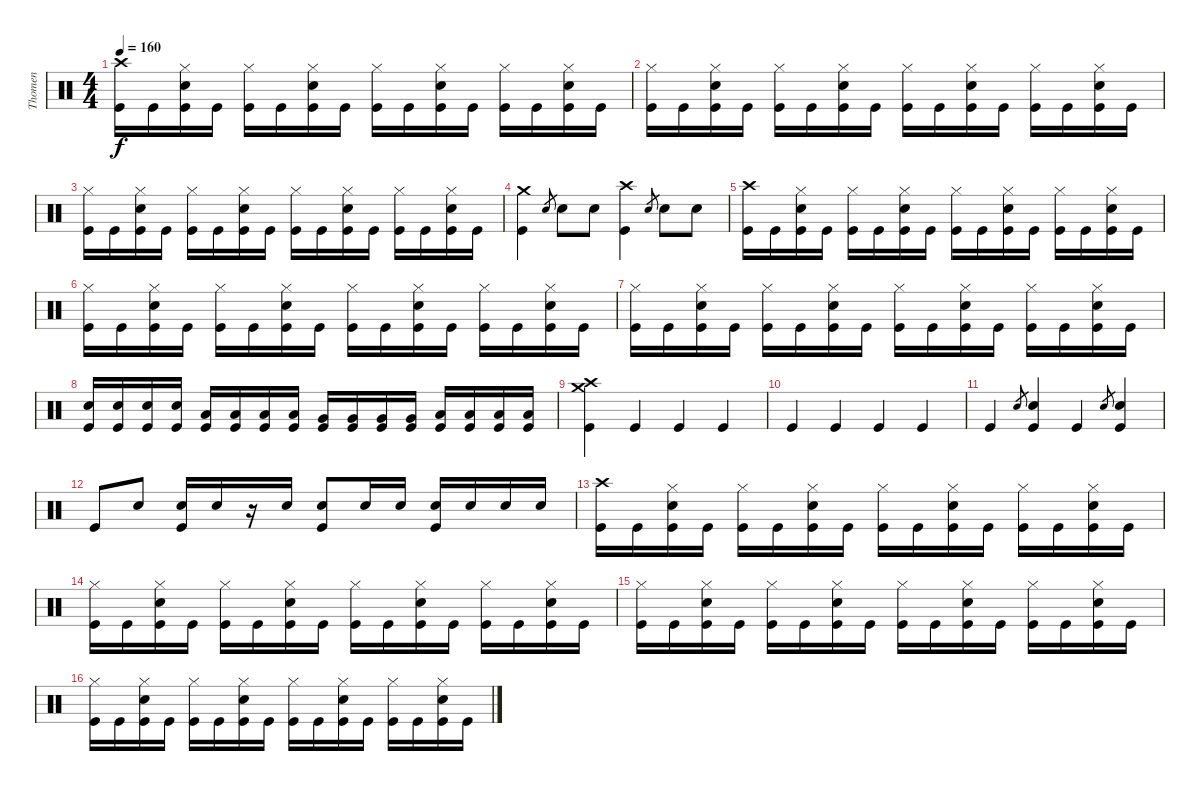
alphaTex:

\track ("Thomen" "Thomen") {instrument percussion}
\staff {score}
\articulation defaults
\ts (4 4)
\tempo 160
\clef neutral
\ks c
("Crash high (hit)" "Kick (hit)").16{dy f} "Kick (hit)".16 ("Hi-Hat (closed)" "Snare (hit) 2" "Kick (hit)").16 "Kick (hit)".16 ("Hi-Hat (closed)" "Kick (hit)").16 "Kick (hit)".16 ("Hi-Hat (closed)" "Snare (hit) 2" "Kick (hit)").16 "Kick (hit)".16 ("Hi-Hat (closed)" "Kick (hit)").16 "Kick (hit)".16 ("Hi-Hat (closed)" "Snare (hit) 2" "Kick (hit)").16 "Kick (hit)".16 ("Hi-Hat (closed)" "Kick (hit)").16 "Kick (hit)".16 ("Hi-Hat (closed)" "Snare (hit) 2" "Kick (hit)").16 "Kick (hit)".16 |
("Hi-Hat (closed)" "Kick (hit)").16 "Kick (hit)".16 ("Hi-Hat (closed)" "Snare (hit) 2" "Kick (hit)").16 "Kick (hit)".16 ("Hi-Hat (closed)" "Kick (hit)").16 "Kick (hit)".16 ("Hi-Hat (closed)" "Snare (hit) 2" "Kick (hit)").16 "Kick (hit)".16 ("Hi-Hat (closed)" "Kick (hit)").16 "Kick (hit)".16 ("Hi-Hat (closed)" "Snare (hit) 2" "Kick (hit)").16 "Kick (hit)".16 ("Hi-Hat (closed)" "Kick (hit)").16 "Kick (hit)".16 ("Hi-Hat (closed)" "Snare (hit) 2" "Kick (hit)").16 "Kick (hit)".16 |
("Hi-Hat (closed)" "Kick (hit)").16 "Kick (hit)".16 ("Hi-Hat (closed)" "Snare (hit) 2" "Kick (hit)").16 "Kick (hit)".16 ("Hi-Hat (closed)" "Kick (hit)").16 "Kick (hit)".16 ("Hi-Hat (closed)" "Snare (hit) 2" "Kick (hit)").16 "Kick (hit)".16 ("Hi-Hat (closed)" "Kick (hit)").16 "Kick (hit)".16 ("Hi-Hat (closed)" "Snare (hit) 2" "Kick (hit)").16 "Kick (hit)".16 ("Hi-Hat (closed)" "Kick (hit)").16 "Kick (hit)".16 ("Hi-Hat (closed)" "Snare (hit) 2" "Kick (hit)").16 "Kick (hit)".16 |
("Crash medium (hit)" "Kick (hit)").4 "Snare (hit) 2".8{gr} "Snare (hit) 2".8 "Snare (hit) 2".8 ("Crash high (hit)" "Kick (hit)").4 "Snare (hit) 2".8{gr} "Snare (hit) 2".8 "Snare (hit) 2".8 |
("Crash high (hit)" "Kick (hit)").16 "Kick (hit)".16 ("Hi-Hat (closed)" "Snare (hit) 2" "Kick (hit)").16 "Kick (hit)".16 ("Hi-Hat (closed)" "Kick (hit)").16 "Kick (hit)".16 ("Hi-Hat (closed)" "Snare (hit) 2" "Kick (hit)").16 "Kick (hit)".16 ("Hi-Hat (closed)" "Kick (hit)").16 "Kick (hit)".16 ("Hi-Hat (closed)" "Snare (hit) 2" "Kick (hit)").16 "Kick (hit)".16 ("Hi-Hat (closed)" "Kick (hit)").16 "Kick (hit)".16 ("Hi-Hat (closed)" "Snare (hit) 2" "Kick (hit)").16 "Kick (hit)".16 |
("Hi-Hat (closed)" "Kick (hit)").16 "Kick (hit)".16 ("Hi-Hat (closed)" "Snare (hit) 2" "Kick (hit)").16 "Kick (hit)".16 ("Hi-Hat (closed)" "Kick (hit)").16 "Kick (hit)".16 ("Hi-Hat (closed)" "Snare (hit) 2" "Kick (hit)").16 "Kick (hit)".16 ("Hi-Hat (closed)" "Kick (hit)").16 "Kick (hit)".16 ("Hi-Hat (closed)" "Snare (hit) 2" "Kick (hit)").16 "Kick (hit)".16 ("Hi-Hat (closed)" "Kick (hit)").16 "Kick (hit)".16 ("Hi-Hat (closed)" "Snare (hit) 2" "Kick (hit)").16 "Kick (hit)".16 |
("Hi-Hat (closed)" "Kick (hit)").16 "Kick (hit)".16 ("Hi-Hat (closed)" "Snare (hit) 2" "Kick (hit)").16 "Kick (hit)".16 ("Hi-Hat (closed)" "Kick (hit)").16 "Kick (hit)".16 ("Hi-Hat (closed)" "Snare (hit) 2" "Kick (hit)").16 "Kick (hit)".16 ("Hi-Hat (closed)" "Kick (hit)").16 "Kick (hit)".16 ("Hi-Hat (closed)" "Snare (hit) 2" "Kick (hit)").16 "Kick (hit)".16 ("Hi-Hat (closed)" "Kick (hit)").16 "Kick (hit)".16 ("Hi-Hat (closed)" "Snare (hit) 2" "Kick (hit)").16 "Kick (hit)".16 |
("Snare (hit) 2" "Kick (hit)").16 ("Snare (hit) 2" "Kick (hit)").16 ("Snare (hit) 2" "Kick (hit)").16 ("Snare (hit) 2" "Kick (hit)").16 ("Low Tom (hit)" "Kick (hit)").16 ("Low Tom (hit)" "Kick (hit)").16 ("Low Tom (hit)" "Kick (hit)").16 ("Low Tom (hit)" "Kick (hit)").16 ("Very Low Tom (hit)" "Kick (hit)").16 ("Very Low Tom (hit)" "Kick (hit)").16 ("Very Low Tom (hit)" "Kick (hit)").16 ("Very Low Tom (hit)" "Kick (hit)").16 ("Low Floor Tom (hit)" "Kick (hit)").16 ("Low Floor Tom (hit)" "Kick (hit)").16 ("Low Floor Tom (hit)" "Kick (hit)").16 ("Low Floor Tom (hit)" "Kick (hit)").16 |
("Crash high (hit)" "Crash medium (hit)" "Kick (hit)").4 "Kick (hit)".4 "Kick (hit)".4 "Kick (hit)".4 |
"Kick (hit)".4 "Kick (hit)".4 "Kick (hit)".4 "Kick (hit)".4 |
"Kick (hit)".4 "Snare (hit) 2".8{gr} ("Snare (hit) 2" "Kick (hit)").4 "Kick (hit)".4 "Snare (hit) 2".8{gr} ("Snare (hit) 2" "Kick (hit)").4 |
"Kick (hit)".8 "Snare (hit) 2".8 ("Snare (hit) 2" "Kick (hit)").16 "Snare (hit) 2".16 r.16 "Snare (hit) 2".16 ("Snare (hit) 2" "Kick (hit)").8 "Snare (hit) 2".16 "Snare (hit) 2".16 ("Snare (hit) 2" "Kick (hit)").16 "Snare (hit) 2".16 "Snare (hit) 2".16 "Snare (hit) 2".16 |
("Crash high (hit)" "Kick (hit)").16 "Kick (hit)".16 ("Hi-Hat (closed)" "Snare (hit) 2" "Kick (hit)").16 "Kick (hit)".16 ("Hi-Hat (closed)" "Kick (hit)").16 "Kick (hit)".16 ("Hi-Hat (closed)" "Snare (hit) 2" "Kick (hit)").16 "Kick (hit)".16 ("Hi-Hat (closed)" "Kick (hit)").16 "Kick (hit)".16 ("Hi-Hat (closed)" "Snare (hit) 2" "Kick (hit)").16 "Kick (hit)".16 ("Hi-Hat (closed)" "Kick (hit)").16 "Kick (hit)".16 ("Hi-Hat (closed)" "Snare (hit) 2" "Kick (hit)").16 "Kick (hit)".16 |
("Hi-Hat (closed)" "Kick (hit)").16 "Kick (hit)".16 ("Hi-Hat (closed)" "Snare (hit) 2" "Kick (hit)").16 "Kick (hit)".16 ("Hi-Hat (closed)" "Kick (hit)").16 "Kick (hit)".16 ("Hi-Hat (closed)" "Snare (hit) 2" "Kick (hit)").16 "Kick (hit)".16 ("Hi-Hat (closed)" "Kick (hit)").16 "Kick (hit)".16 ("Hi-Hat (closed)" "Snare (hit) 2" "Kick (hit)").16 "Kick (hit)".16 ("Hi-Hat (closed)" "Kick (hit)").16 "Kick (hit)".16 ("Hi-Hat (closed)" "Snare (hit) 2" "Kick (hit)").16 "Kick (hit)".16 |
("Hi-Hat (closed)" "Kick (hit)").16 "Kick (hit)".16 ("Hi-Hat (closed)" "Snare (hit) 2" "Kick (hit)").16 "Kick (hit)".16 ("Hi-Hat (closed)" "Kick (hit)").16 "Kick (hit)".16 ("Hi-Hat (closed)" "Snare (hit) 2" "Kick (hit)").16 "Kick (hit)".16 ("Hi-Hat (closed)" "Kick (hit)").16 "Kick (hit)".16 ("Hi-Hat (closed)" "Snare (hit) 2" "Kick (hit)").16 "Kick (hit)".16 ("Hi-Hat (closed)" "Kick (hit)").16 "Kick (hit)".16 ("Hi-Hat (closed)" "Snare (hit) 2" "Kick (hit)").16 "Kick (hit)".16 |
("Hi-Hat (closed)" "Kick (hit)").16 "Kick (hit)".16 ("Hi-Hat (closed)" "Snare (hit) 2" "Kick (hit)").16 "Kick (hit)".16 ("Hi-Hat (closed)" "Kick (hit)").16 "Kick (hit)".16 ("Hi-Hat (closed)" "Snare (hit) 2" "Kick (hit)").16 "Kick (hit)".16 ("Hi-Hat (closed)" "Kick (hit)").16 "Kick (hit)".16 ("Hi-Hat (closed)" "Snare (hit) 2" "Kick (hit)").16 "Kick (hit)".16 ("Hi-Hat (closed)" "Kick (hit)").16 "Kick (hit)".16 ("Hi-Hat (closed)" "Snare (hit) 2" "Kick (hit)").16 "Kick (hit)".16
